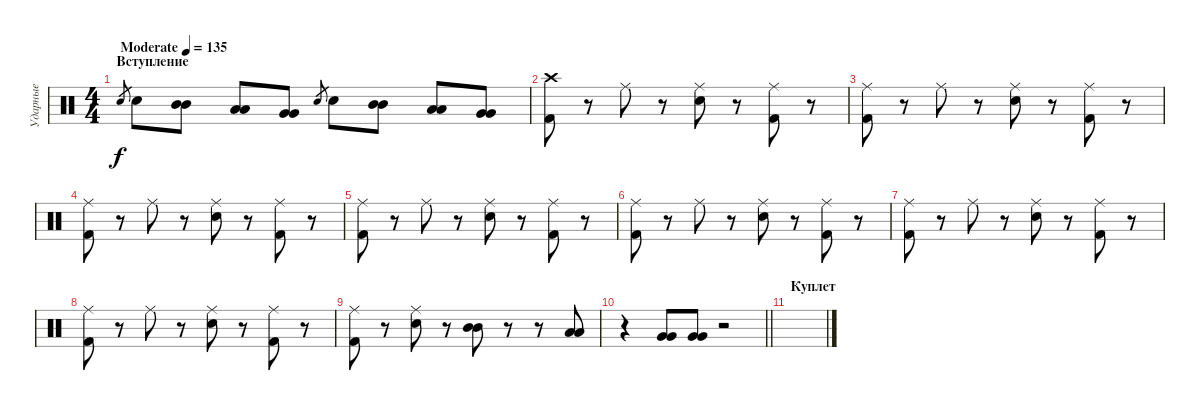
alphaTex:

\track ("Ударные" "Ударные") {instrument percussion}
\staff {score}
\articulation defaults
\ts (4 4)
\section ("" "Вступление")
\tempo (135 "Moderate")
\clef neutral
\ks c "Electric Snare (hit)".8{gr dy f} "Electric Snare (hit)".8
("Mid Tom (hit)" "Mid Tom (hit)").8 ("Low Tom (hit)" "Low Tom (hit)").8 ("Very Low Tom (hit)" "Very Low Tom (hit)").8 "Electric Snare (hit)".8{gr} "Electric Snare (hit)".8 ("Mid Tom (hit)" "Mid Tom (hit)").8 ("Low Tom (hit)" "Low Tom (hit)").8 ("Very Low Tom (hit)" "Very Low Tom (hit)").8 |
("Kick (hit) 2" "Crash high (hit)").8 r.8 "Ride (middle)".8 r.8 ("Ride (middle)" "Electric Snare (hit)").8 r.8 ("Ride (middle)" "Kick (hit) 2").8 r.8 |
("Ride (middle)" "Kick (hit) 2").8 r.8 "Ride (middle)".8 r.8 ("Ride (middle)" "Electric Snare (hit)").8 r.8 ("Ride (middle)" "Kick (hit) 2").8 r.8 |
("Ride (middle)" "Kick (hit) 2").8 r.8 "Ride (middle)".8 r.8 ("Ride (middle)" "Electric Snare (hit)").8 r.8 ("Ride (middle)" "Kick (hit) 2").8 r.8 |
("Ride (middle)" "Kick (hit) 2").8 r.8 "Ride (middle)".8 r.8 ("Ride (middle)" "Electric Snare (hit)").8 r.8 ("Ride (middle)" "Kick (hit) 2").8 r.8 |
("Ride (middle)" "Kick (hit) 2").8 r.8 "Ride (middle)".8 r.8 ("Ride (middle)" "Electric Snare (hit)").8 r.8 ("Ride (middle)" "Kick (hit) 2").8 r.8 |
("Ride (middle)" "Kick (hit) 2").8 r.8 "Ride (middle)".8 r.8 ("Ride (middle)" "Electric Snare (hit)").8 r.8 ("Ride (middle)" "Kick (hit) 2").8 r.8 |
("Ride (middle)" "Kick (hit) 2").8 r.8 "Ride (middle)".8 r.8 ("Ride (middle)" "Electric Snare (hit)").8 r.8 ("Ride (middle)" "Kick (hit) 2").8 r.8 |
("Kick (hit) 2" "Ride (middle)").8 r.8 ("Electric Snare (hit)" "Ride (middle)").8 r.8 ("Mid Tom (hit)" "Mid Tom (hit)").8 r.8 r.8 ("Low Tom (hit)" "Low Tom (hit)").8 |
\barLineRight lightlight
r.4 ("Very Low Tom (hit)" "Very Low Tom (hit)").8 ("Very Low Tom (hit)" "Very Low Tom (hit)").8 r.2 |
\section ("" "Куплет")
